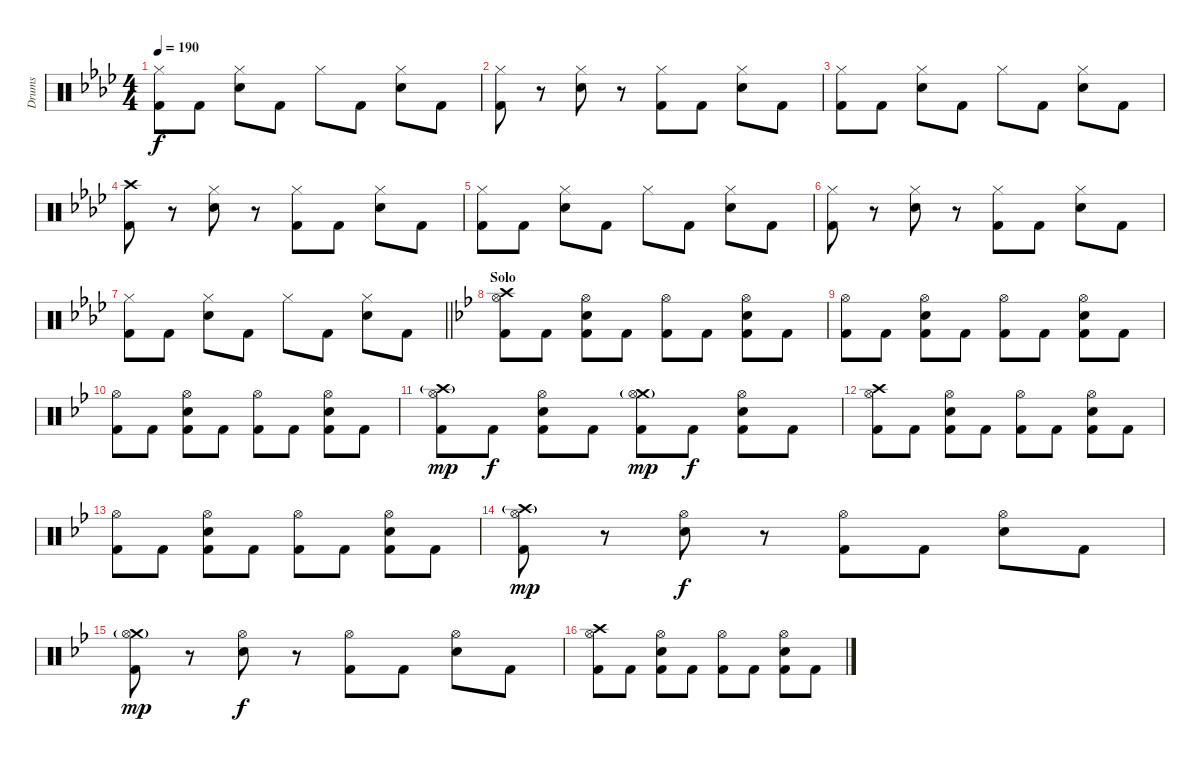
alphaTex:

\track ("Drums" "Drums") {instrument percussion}
\staff {score}
\articulation defaults
\ts (4 4)
\tempo 190
\clef neutral
\ks fminor
("Hi-Hat (closed)" "Kick (hit) 2").8{dy f} "Kick (hit) 2".8 ("Hi-Hat (closed)" "Electric Snare (hit)").8 "Kick (hit) 2".8 "Hi-Hat (closed)".8 "Kick (hit) 2".8 ("Hi-Hat (closed)" "Electric Snare (hit)").8 "Kick (hit) 2".8 |
("Hi-Hat (closed)" "Kick (hit) 2").8 r.8 ("Hi-Hat (closed)" "Electric Snare (hit)").8 r.8 ("Hi-Hat (closed)" "Kick (hit) 2").8 "Kick (hit) 2".8 ("Hi-Hat (closed)" "Electric Snare (hit)").8 "Kick (hit) 2".8 |
("Hi-Hat (closed)" "Kick (hit) 2").8 "Kick (hit) 2".8 ("Hi-Hat (closed)" "Electric Snare (hit)").8 "Kick (hit) 2".8 "Hi-Hat (closed)".8 "Kick (hit) 2".8 ("Hi-Hat (closed)" "Electric Snare (hit)").8 "Kick (hit) 2".8 |
("Crash high (hit)" "Kick (hit) 2").8 r.8 ("Hi-Hat (closed)" "Electric Snare (hit)").8 r.8 ("Hi-Hat (closed)" "Kick (hit) 2").8 "Kick (hit) 2".8 ("Hi-Hat (closed)" "Electric Snare (hit)").8 "Kick (hit) 2".8 |
("Hi-Hat (closed)" "Kick (hit) 2").8 "Kick (hit) 2".8 ("Hi-Hat (closed)" "Electric Snare (hit)").8 "Kick (hit) 2".8 "Hi-Hat (closed)".8 "Kick (hit) 2".8 ("Hi-Hat (closed)" "Electric Snare (hit)").8 "Kick (hit) 2".8 |
("Hi-Hat (closed)" "Kick (hit) 2").8 r.8 ("Hi-Hat (closed)" "Electric Snare (hit)").8 r.8 ("Hi-Hat (closed)" "Kick (hit) 2").8 "Kick (hit) 2".8 ("Hi-Hat (closed)" "Electric Snare (hit)").8 "Kick (hit) 2".8 |
\barLineRight lightlight
("Hi-Hat (closed)" "Kick (hit) 2").8 "Kick (hit) 2".8 ("Hi-Hat (closed)" "Electric Snare (hit)").8 "Kick (hit) 2".8 "Hi-Hat (closed)".8 "Kick (hit) 2".8 ("Hi-Hat (closed)" "Electric Snare (hit)").8 "Kick (hit) 2".8 |
\section ("" "Solo")
\ks gminor
("Crash high (hit)" "Hi-Hat (open)" "Kick (hit) 2").8 "Kick (hit) 2".8 ("Hi-Hat (open)" "Electric Snare (hit)" "Kick (hit) 2").8 "Kick (hit) 2".8 ("Hi-Hat (open)" "Kick (hit) 2").8 "Kick (hit) 2".8 ("Hi-Hat (open)" "Electric Snare (hit)" "Kick (hit) 2").8 "Kick (hit) 2".8 |
("Hi-Hat (open)" "Kick (hit) 2").8 "Kick (hit) 2".8 ("Hi-Hat (open)" "Electric Snare (hit)" "Kick (hit) 2").8 "Kick (hit) 2".8 ("Hi-Hat (open)" "Kick (hit) 2").8 "Kick (hit) 2".8 ("Hi-Hat (open)" "Electric Snare (hit)" "Kick (hit) 2").8 "Kick (hit) 2".8 |
("Hi-Hat (open)" "Kick (hit) 2").8 "Kick (hit) 2".8 ("Hi-Hat (open)" "Electric Snare (hit)" "Kick (hit) 2").8 "Kick (hit) 2".8 ("Hi-Hat (open)" "Kick (hit) 2").8 "Kick (hit) 2".8 ("Hi-Hat (open)" "Electric Snare (hit)" "Kick (hit) 2").8 "Kick (hit) 2".8 |
("Crash high (hit)"{g} "Hi-Hat (open)" "Kick (hit) 2").8{dy mp} "Kick (hit) 2".8{dy f} ("Hi-Hat (open)" "Electric Snare (hit)" "Kick (hit) 2").8 "Kick (hit) 2".8 ("Crash medium (hit)"{g} "Hi-Hat (open)" "Kick (hit) 2").8{dy mp} "Kick (hit) 2".8{dy f} ("Hi-Hat (open)" "Electric Snare (hit)" "Kick (hit) 2").8 "Kick (hit) 2".8 |
("Crash high (hit)" "Hi-Hat (open)" "Kick (hit) 2").8 "Kick (hit) 2".8 ("Hi-Hat (open)" "Electric Snare (hit)" "Kick (hit) 2").8 "Kick (hit) 2".8 ("Hi-Hat (open)" "Kick (hit) 2").8 "Kick (hit) 2".8 ("Hi-Hat (open)" "Electric Snare (hit)" "Kick (hit) 2").8 "Kick (hit) 2".8 |
("Hi-Hat (open)" "Kick (hit) 2").8 "Kick (hit) 2".8 ("Hi-Hat (open)" "Electric Snare (hit)" "Kick (hit) 2").8 "Kick (hit) 2".8 ("Hi-Hat (open)" "Kick (hit) 2").8 "Kick (hit) 2".8 ("Hi-Hat (open)" "Electric Snare (hit)" "Kick (hit) 2").8 "Kick (hit) 2".8 |
("Crash high (hit)"{g} "Hi-Hat (open)" "Kick (hit) 2").8{dy mp} r.8 ("Hi-Hat (open)" "Electric Snare (hit)").8{dy f} r.8 ("Hi-Hat (open)" "Kick (hit) 2").8 "Kick (hit) 2".8 ("Hi-Hat (open)" "Electric Snare (hit)").8 "Kick (hit) 2".8 |
("Crash medium (hit)"{g} "Hi-Hat (open)" "Kick (hit) 2").8{dy mp} r.8 ("Hi-Hat (open)" "Electric Snare (hit)").8{dy f} r.8 ("Hi-Hat (open)" "Kick (hit) 2").8 "Kick (hit) 2".8 ("Hi-Hat (open)" "Electric Snare (hit)").8 "Kick (hit) 2".8 |
("Crash high (hit)" "Hi-Hat (open)" "Kick (hit) 2").8 "Kick (hit) 2".8 ("Hi-Hat (open)" "Electric Snare (hit)" "Kick (hit) 2").8 "Kick (hit) 2".8 ("Hi-Hat (open)" "Kick (hit) 2").8 "Kick (hit) 2".8 ("Hi-Hat (open)" "Electric Snare (hit)" "Kick (hit) 2").8 "Kick (hit) 2".8
